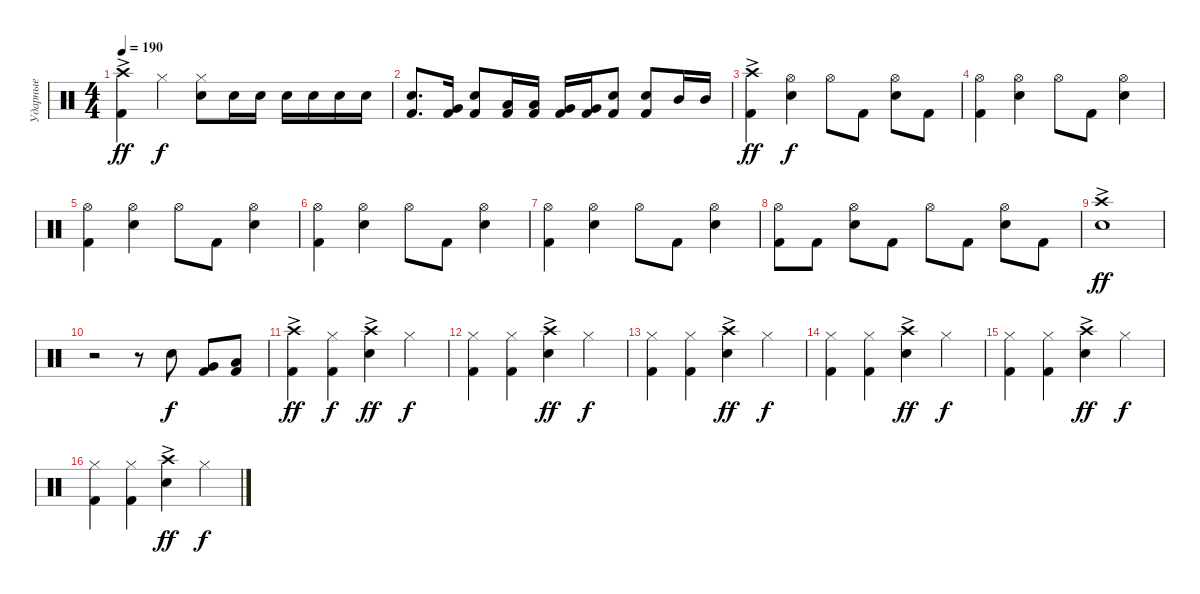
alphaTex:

\track ("Ударные" "Ударные") {instrument percussion}
\staff {score}
\articulation defaults
\ts (4 4)
\tempo 190
\clef neutral
\ks c
("Kick (hit) 2" "Crash high (hit)"{ac}).4{dy ff} "Hi-Hat (closed)".4{dy f} ("Snare (hit) 2" "Hi-Hat (closed)").8 "Snare (hit) 2".16 "Snare (hit) 2".16 "Snare (hit) 2".16 "Snare (hit) 2".16 "Snare (hit) 2".16 "Snare (hit) 2".16 |
("Kick (hit) 2" "Snare (hit) 2").8{d} ("Kick (hit) 2" "Very Low Tom (hit)").16 ("Kick (hit) 2" "Snare (hit) 2").8 ("Kick (hit) 2" "Low Tom (hit)").16 ("Kick (hit) 2" "Low Tom (hit)").16 ("Kick (hit) 2" "Very Low Tom (hit)").16 ("Kick (hit) 2" "Very Low Tom (hit)").16 ("Kick (hit) 2" "Snare (hit) 2").8 ("Kick (hit) 2" "Snare (hit) 2").8 "Mid Tom (hit)".16 "Mid Tom (hit)".16 |
("Kick (hit) 2" "Crash high (hit)"{ac}).4{dy ff} ("Snare (hit) 2" "Hi-Hat (open)").4{dy f} "Hi-Hat (open)".8 "Kick (hit) 2".8 ("Snare (hit) 2" "Hi-Hat (open)").8 "Kick (hit) 2".8 |
("Kick (hit) 2" "Hi-Hat (open)").4 ("Snare (hit) 2" "Hi-Hat (open)").4 "Hi-Hat (open)".8 "Kick (hit) 2".8 ("Snare (hit) 2" "Hi-Hat (open)").4 |
("Kick (hit) 2" "Hi-Hat (open)").4 ("Snare (hit) 2" "Hi-Hat (open)").4 "Hi-Hat (open)".8 "Kick (hit) 2".8 ("Snare (hit) 2" "Hi-Hat (open)").4 |
("Kick (hit) 2" "Hi-Hat (open)").4 ("Snare (hit) 2" "Hi-Hat (open)").4 "Hi-Hat (open)".8 "Kick (hit) 2".8 ("Snare (hit) 2" "Hi-Hat (open)").4 |
("Kick (hit) 2" "Hi-Hat (open)").4 ("Snare (hit) 2" "Hi-Hat (open)").4 "Hi-Hat (open)".8 "Kick (hit) 2".8 ("Snare (hit) 2" "Hi-Hat (open)").4 |
("Kick (hit) 2" "Hi-Hat (open)").8 "Kick (hit) 2".8 ("Snare (hit) 2" "Hi-Hat (open)").8 "Kick (hit) 2".8 "Hi-Hat (open)".8 "Kick (hit) 2".8 ("Snare (hit) 2" "Hi-Hat (open)").8 "Kick (hit) 2".8 |
("Snare (hit) 2" "Crash high (hit)"{ac}).1{dy ff} |
r.2 r.8 "Snare (hit) 2".8{dy f} ("Kick (hit) 2" "Very Low Tom (hit)").8 ("Kick (hit) 2" "Low Floor Tom (hit)").8 |
("Kick (hit) 2" "Crash high (hit)"{ac}).4{dy ff} ("Kick (hit) 2" "Hi-Hat (closed)").4{dy f} ("Snare (hit) 2" "Crash high (hit)"{ac}).4{dy ff} "Hi-Hat (closed)".4{dy f} |
("Kick (hit) 2" "Hi-Hat (closed)").4 ("Kick (hit) 2" "Hi-Hat (closed)").4 ("Snare (hit) 2" "Crash high (hit)"{ac}).4{dy ff} "Hi-Hat (closed)".4{dy f} |
("Kick (hit) 2" "Hi-Hat (closed)").4 ("Kick (hit) 2" "Hi-Hat (closed)").4 ("Snare (hit) 2" "Crash high (hit)"{ac}).4{dy ff} "Hi-Hat (closed)".4{dy f} |
("Kick (hit) 2" "Hi-Hat (closed)").4 ("Kick (hit) 2" "Hi-Hat (closed)").4 ("Snare (hit) 2" "Crash high (hit)"{ac}).4{dy ff} "Hi-Hat (closed)".4{dy f} |
("Kick (hit) 2" "Hi-Hat (closed)").4 ("Kick (hit) 2" "Hi-Hat (closed)").4 ("Snare (hit) 2" "Crash high (hit)"{ac}).4{dy ff} "Hi-Hat (closed)".4{dy f} |
("Kick (hit) 2" "Hi-Hat (closed)").4 ("Kick (hit) 2" "Hi-Hat (closed)").4 ("Snare (hit) 2" "Crash high (hit)"{ac}).4{dy ff} "Hi-Hat (closed)".4{dy f}
